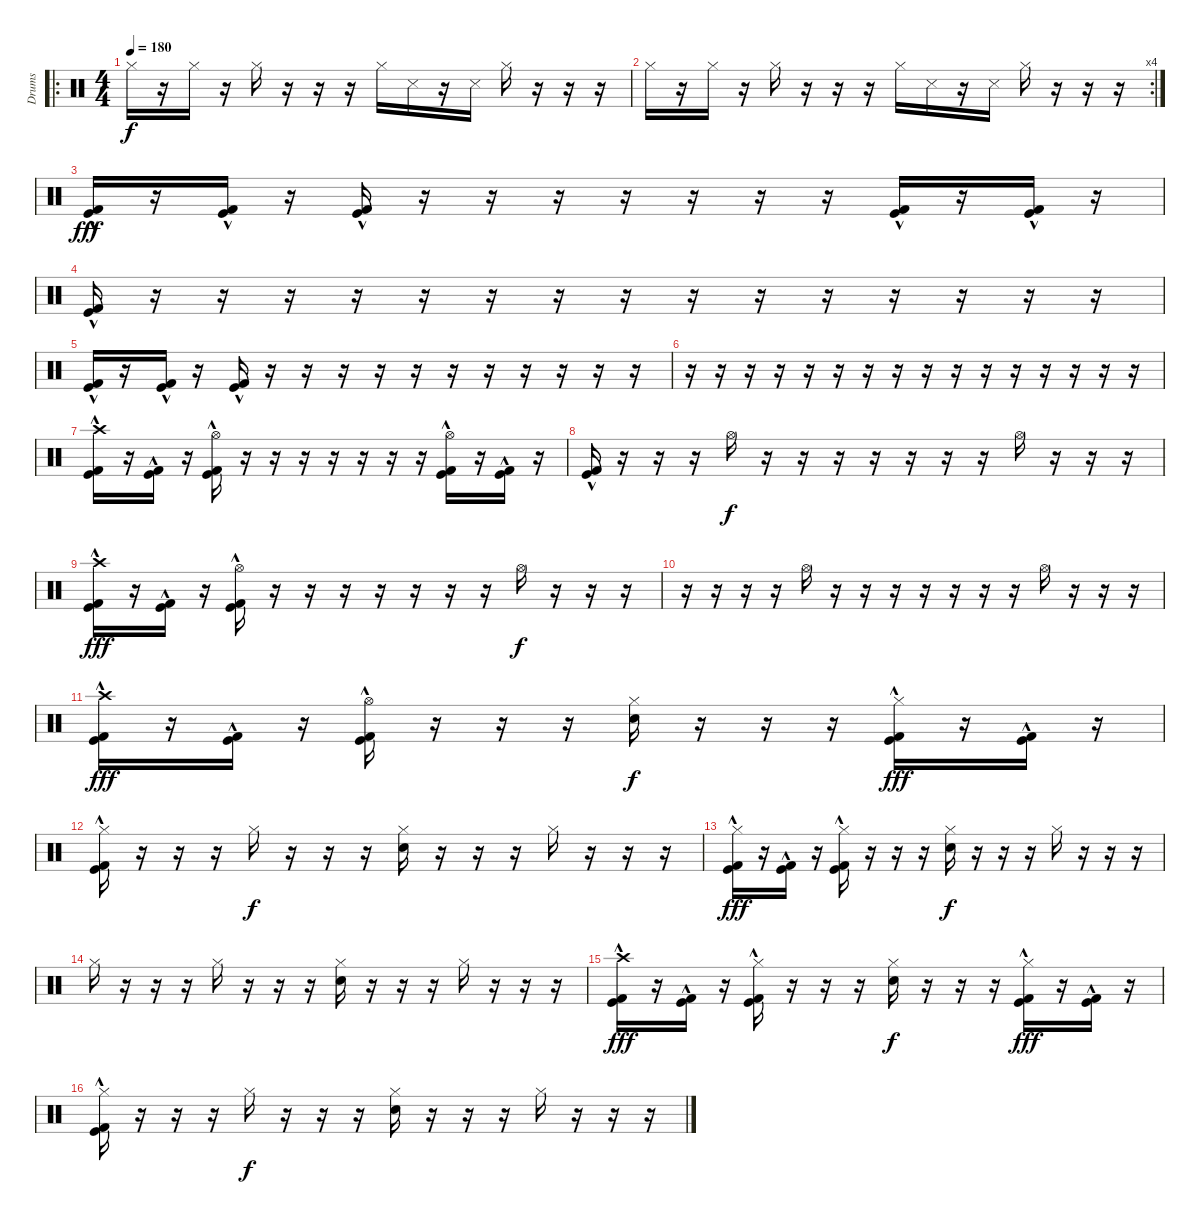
\track ("Drums" "Drums") {instrument percussion}
\staff {score}
\articulation defaults
\ro
\ts (4 4)
\tempo 180
\clef neutral
\ks c "Hi-Hat (closed)".16{dy f}
r.16 "Hi-Hat (closed)".16 r.16 "Hi-Hat (closed)".16 r.16 r.16 r.16 "Hi-Hat (closed)".16 "Metronome (hit)".16 r.16 "Metronome (hit)".16 "Hi-Hat (closed)".16 r.16 r.16 r.16 |
\rc 4 "Hi-Hat (closed)".16
r.16 "Hi-Hat (closed)".16 r.16 "Hi-Hat (closed)".16 r.16 r.16 r.16 "Hi-Hat (closed)".16 "Metronome (hit)".16 r.16 "Metronome (hit)".16 "Hi-Hat (closed)".16 r.16 r.16 r.16 |
("Kick (hit)"{hac} "Kick (hit) 2"{hac}).16{dy fff volume 16} r.16 ("Kick (hit)"{hac} "Kick (hit) 2"{hac}).16 r.16 ("Kick (hit)"{hac} "Kick (hit) 2"{hac}).16 r.16 r.16 r.16 r.16 r.16 r.16 r.16 ("Kick (hit)"{hac} "Kick (hit) 2"{hac}).16 r.16 ("Kick (hit)"{hac} "Kick (hit) 2"{hac}).16 r.16 |
("Kick (hit)"{hac} "Kick (hit) 2"{hac}).16 r.16 r.16 r.16 r.16 r.16 r.16 r.16 r.16 r.16 r.16 r.16 r.16 r.16 r.16 r.16 |
("Kick (hit)"{hac} "Kick (hit) 2"{hac}).16 r.16 ("Kick (hit)"{hac} "Kick (hit) 2"{hac}).16 r.16 ("Kick (hit)"{hac} "Kick (hit) 2"{hac}).16 r.16 r.16 r.16 r.16 r.16 r.16 r.16 r.16 r.16 r.16 r.16 |
r.16 r.16 r.16 r.16 r.16 r.16 r.16 r.16 r.16 r.16 r.16 r.16 r.16 r.16 r.16 r.16 |
("Crash high (hit)" "Kick (hit)"{hac} "Kick (hit) 2"{hac}).16 r.16 ("Kick (hit)"{hac} "Kick (hit) 2"{hac}).16 r.16 ("Hi-Hat (open)" "Kick (hit)"{hac} "Kick (hit) 2"{hac}).16 r.16 r.16 r.16 r.16 r.16 r.16 r.16 ("Hi-Hat (open)" "Kick (hit)"{hac} "Kick (hit) 2"{hac}).16 r.16 ("Kick (hit)"{hac} "Kick (hit) 2"{hac}).16 r.16 |
("Kick (hit)"{hac} "Kick (hit) 2"{hac}).16 r.16 r.16 r.16 "Hi-Hat (open)".16{dy f} r.16 r.16 r.16 r.16 r.16 r.16 r.16 "Hi-Hat (open)".16 r.16 r.16 r.16 |
("Crash high (hit)" "Kick (hit)"{hac} "Kick (hit) 2"{hac}).16{dy fff} r.16 ("Kick (hit)"{hac} "Kick (hit) 2"{hac}).16 r.16 ("Hi-Hat (open)" "Kick (hit)"{hac} "Kick (hit) 2"{hac}).16 r.16 r.16 r.16 r.16 r.16 r.16 r.16 "Hi-Hat (open)".16{dy f} r.16 r.16 r.16 |
r.16 r.16 r.16 r.16 "Hi-Hat (open)".16 r.16 r.16 r.16 r.16 r.16 r.16 r.16 "Hi-Hat (open)".16 r.16 r.16 r.16 |
("Crash high (hit)" "Kick (hit)"{hac} "Kick (hit) 2"{hac}).16{dy fff} r.16 ("Kick (hit)"{hac} "Kick (hit) 2"{hac}).16 r.16 ("Hi-Hat (open)" "Kick (hit)"{hac} "Kick (hit) 2"{hac}).16 r.16 r.16 r.16 ("Hi-Hat (closed)" "Snare (hit) 2").16{dy f} r.16 r.16 r.16 ("Hi-Hat (closed)" "Kick (hit)"{hac} "Kick (hit) 2"{hac}).16{dy fff} r.16 ("Kick (hit)"{hac} "Kick (hit) 2"{hac}).16 r.16 |
("Hi-Hat (closed)" "Kick (hit)"{hac} "Kick (hit) 2"{hac}).16 r.16 r.16 r.16 "Hi-Hat (closed)".16{dy f} r.16 r.16 r.16 ("Hi-Hat (closed)" "Snare (hit) 2").16 r.16 r.16 r.16 "Hi-Hat (closed)".16 r.16 r.16 r.16 |
("Hi-Hat (closed)" "Kick (hit)"{hac} "Kick (hit) 2"{hac}).16{dy fff} r.16 ("Kick (hit)"{hac} "Kick (hit) 2"{hac}).16 r.16 ("Hi-Hat (closed)" "Kick (hit)"{hac} "Kick (hit) 2"{hac}).16 r.16 r.16 r.16 ("Hi-Hat (closed)" "Snare (hit) 2").16{dy f} r.16 r.16 r.16 "Hi-Hat (closed)".16 r.16 r.16 r.16 |
"Hi-Hat (closed)".16 r.16 r.16 r.16 "Hi-Hat (closed)".16 r.16 r.16 r.16 ("Hi-Hat (closed)" "Snare (hit) 2").16 r.16 r.16 r.16 "Hi-Hat (closed)".16 r.16 r.16 r.16 |
("Crash high (hit)" "Kick (hit)"{hac} "Kick (hit) 2"{hac}).16{dy fff} r.16 ("Kick (hit)"{hac} "Kick (hit) 2"{hac}).16 r.16 ("Hi-Hat (closed)" "Kick (hit)"{hac} "Kick (hit) 2"{hac}).16 r.16 r.16 r.16 ("Hi-Hat (closed)" "Snare (hit) 2").16{dy f} r.16 r.16 r.16 ("Hi-Hat (closed)" "Kick (hit)"{hac} "Kick (hit) 2"{hac}).16{dy fff} r.16 ("Kick (hit)"{hac} "Kick (hit) 2"{hac}).16 r.16 |
("Hi-Hat (closed)" "Kick (hit)"{hac} "Kick (hit) 2"{hac}).16 r.16 r.16 r.16 "Hi-Hat (closed)".16{dy f} r.16 r.16 r.16 ("Hi-Hat (closed)" "Snare (hit) 2").16 r.16 r.16 r.16 "Hi-Hat (closed)".16 r.16 r.16 r.16
